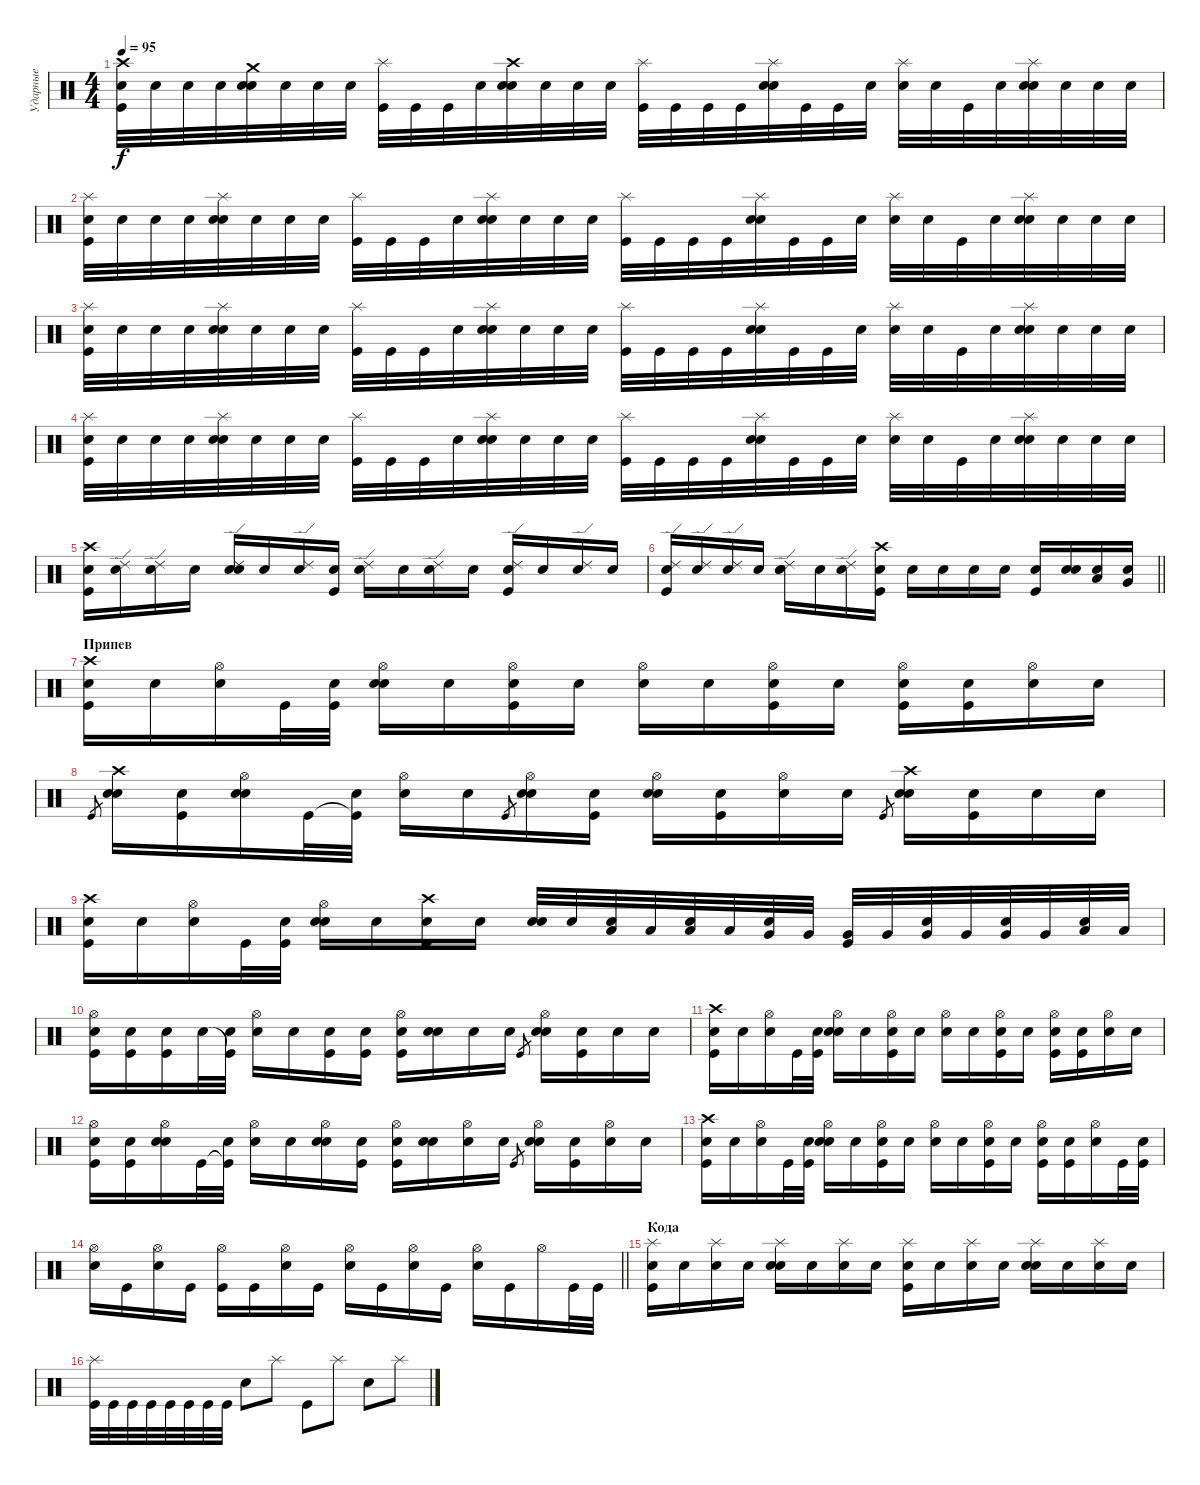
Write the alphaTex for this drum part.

\track ("Ударные" "Ударные") {instrument percussion}
\staff {score}
\articulation defaults
\ts (4 4)
\tempo 95
\clef neutral
\ks c
("Crash high (hit)" "Kick (hit)" "Snare (hit)"{x}).32{dy f} "Snare (hit)"{x}.32 "Snare (hit)"{x}.32 "Snare (hit)"{x}.32 ("Crash medium (hit)" "Electric Snare (hit)" "Snare (hit)"{x}).32 "Snare (hit)"{x}.32 "Snare (hit)"{x}.32 "Snare (hit)"{x}.32 ("Splash (hit)" "Kick (hit)").32 "Kick (hit)".32 "Kick (hit)".32 "Snare (hit)"{x}.32 ("Crash high (hit)" "Electric Snare (hit)" "Snare (hit)"{x}).32 "Snare (hit)"{x}.32 "Snare (hit)"{x}.32 "Snare (hit)"{x}.32 ("Splash (hit)" "Kick (hit)").32 "Kick (hit)".32 "Kick (hit)".32 "Kick (hit)".32 ("Splash (hit)" "Electric Snare (hit)" "Snare (hit)"{x}).32 "Kick (hit)"{x}.32 "Kick (hit)".32 "Snare (hit)"{x}.32 ("Splash (hit)" "Snare (hit)"{x}).32 "Snare (hit)"{x}.32 "Kick (hit)".32 "Snare (hit)"{x}.32 ("Splash (hit)" "Electric Snare (hit)" "Snare (hit)"{x}).32 "Snare (hit)"{x}.32 "Snare (hit)"{x}.32 "Snare (hit)"{x}.32 |
("Splash (hit)" "Kick (hit)" "Snare (hit)"{x}).32 "Snare (hit)"{x}.32 "Snare (hit)"{x}.32 "Snare (hit)"{x}.32 ("Splash (hit)" "Electric Snare (hit)" "Snare (hit)"{x}).32 "Snare (hit)"{x}.32 "Snare (hit)"{x}.32 "Snare (hit)"{x}.32 ("Splash (hit)" "Kick (hit)").32 "Kick (hit)".32 "Kick (hit)".32 "Snare (hit)"{x}.32 ("Splash (hit)" "Electric Snare (hit)" "Snare (hit)"{x}).32 "Snare (hit)"{x}.32 "Snare (hit)"{x}.32 "Snare (hit)"{x}.32 ("Splash (hit)" "Kick (hit)").32 "Kick (hit)".32 "Kick (hit)".32 "Kick (hit)".32 ("Splash (hit)" "Electric Snare (hit)" "Snare (hit)"{x}).32 "Kick (hit)"{x}.32 "Kick (hit)".32 "Snare (hit)"{x}.32 ("Splash (hit)" "Snare (hit)"{x}).32 "Snare (hit)"{x}.32 "Kick (hit)".32 "Snare (hit)"{x}.32 ("Splash (hit)" "Electric Snare (hit)" "Snare (hit)"{x}).32 "Snare (hit)"{x}.32 "Snare (hit)"{x}.32 "Snare (hit)"{x}.32 |
("Splash (hit)" "Kick (hit)" "Snare (hit)"{x}).32 "Snare (hit)"{x}.32 "Snare (hit)"{x}.32 "Snare (hit)"{x}.32 ("Splash (hit)" "Electric Snare (hit)" "Snare (hit)"{x}).32 "Snare (hit)"{x}.32 "Snare (hit)"{x}.32 "Snare (hit)"{x}.32 ("Splash (hit)" "Kick (hit)").32 "Kick (hit)".32 "Kick (hit)".32 "Snare (hit)"{x}.32 ("Splash (hit)" "Electric Snare (hit)" "Snare (hit)"{x}).32 "Snare (hit)"{x}.32 "Snare (hit)"{x}.32 "Snare (hit)"{x}.32 ("Splash (hit)" "Kick (hit)").32 "Kick (hit)".32 "Kick (hit)".32 "Kick (hit)".32 ("Splash (hit)" "Electric Snare (hit)" "Snare (hit)"{x}).32 "Kick (hit)"{x}.32 "Kick (hit)".32 "Snare (hit)"{x}.32 ("Splash (hit)" "Snare (hit)"{x}).32 "Snare (hit)"{x}.32 "Kick (hit)".32 "Snare (hit)"{x}.32 ("Splash (hit)" "Electric Snare (hit)" "Snare (hit)"{x}).32 "Snare (hit)"{x}.32 "Snare (hit)"{x}.32 "Snare (hit)"{x}.32 |
("Splash (hit)" "Kick (hit)" "Snare (hit)"{x}).32 "Snare (hit)"{x}.32 "Snare (hit)"{x}.32 "Snare (hit)"{x}.32 ("Splash (hit)" "Electric Snare (hit)" "Snare (hit)"{x}).32 "Snare (hit)"{x}.32 "Snare (hit)"{x}.32 "Snare (hit)"{x}.32 ("Splash (hit)" "Kick (hit)").32 "Kick (hit)".32 "Kick (hit)".32 "Snare (hit)"{x}.32 ("Splash (hit)" "Electric Snare (hit)" "Snare (hit)"{x}).32 "Snare (hit)"{x}.32 "Snare (hit)"{x}.32 "Snare (hit)"{x}.32 ("Splash (hit)" "Kick (hit)").32 "Kick (hit)".32 "Kick (hit)".32 "Kick (hit)".32 ("Splash (hit)" "Electric Snare (hit)" "Snare (hit)"{x}).32 "Kick (hit)"{x}.32 "Kick (hit)".32 "Snare (hit)"{x}.32 ("Splash (hit)" "Snare (hit)"{x}).32 "Snare (hit)"{x}.32 "Kick (hit)".32 "Snare (hit)"{x}.32 ("Splash (hit)" "Electric Snare (hit)" "Snare (hit)"{x}).32 "Snare (hit)"{x}.32 "Snare (hit)"{x}.32 "Snare (hit)"{x}.32 |
("Crash high (hit)" "Kick (hit)" "Snare (hit)"{x}).16 ("Ride (edge) 2" "Snare (hit)"{x}).16 ("Ride (edge) 2" "Snare (hit)"{x}).16 "Snare (hit)"{x}.16 ("Ride (edge) 2" "Electric Snare (hit)" "Snare (hit)"{x}).16 "Snare (hit)"{x}.16 ("Ride (edge) 2" "Snare (hit)"{x}).16 ("Kick (hit)" "Snare (hit)"{x}).16 ("Ride (edge) 2" "Snare (hit)"{x}).16 "Snare (hit)"{x}.16 ("Ride (edge) 2" "Snare (hit)"{x}).16 "Snare (hit)"{x}.16 ("Ride (edge) 2" "Electric Snare (hit)" "Kick (hit)"{x}).16 "Snare (hit)"{x}.16 ("Ride (edge) 2" "Snare (hit)"{x}).16 "Snare (hit)"{x}.16 |
\barLineRight lightlight
("Ride (edge) 2" "Kick (hit)" "Snare (hit)"{x}).16 ("Ride (edge) 2" "Snare (hit)"{x}).16 ("Ride (edge) 2" "Snare (hit)"{x}).16 "Snare (hit)"{x}.16 ("Ride (edge) 2" "Electric Snare (hit)" "Snare (hit)"{x}).16 "Snare (hit)"{x}.16 ("Ride (edge) 2" "Snare (hit)"{x}).16 ("Crash high (hit)" "Kick (hit)" "Snare (hit)"{x}).16 "Snare (hit)"{x}.16 "Snare (hit)"{x}.16 "Snare (hit)"{x}.16 "Snare (hit)"{x}.16 ("Electric Snare (hit)" "Kick (hit)"{x}).16 ("Electric Snare (hit)" "Snare (hit)"{x}).16 ("Low Tom (hit)" "Snare (hit)"{x}).16 ("Very Low Tom (hit)" "Snare (hit)"{x}).16 |
\section ("" "Припев")
("Crash high (hit)" "Kick (hit)" "Snare (hit)"{x}).16 "Snare (hit)"{x}.16 ("Hi-Hat (open)" "Snare (hit)"{x}).16 "Kick (hit)".32 ("Kick (hit)" "Snare (hit)"{x}).32 ("Hi-Hat (open)" "Electric Snare (hit)" "Snare (hit)"{x}).16 "Snare (hit)"{x}.16 ("Hi-Hat (open)" "Kick (hit)" "Snare (hit)"{x}).16 "Snare (hit)"{x}.16 ("Hi-Hat (open)" "Snare (hit)"{x}).16 "Snare (hit)"{x}.16 ("Hi-Hat (open)" "Kick (hit)" "Snare (hit)"{x}).16 "Snare (hit)"{x}.16 ("Hi-Hat (open)" "Electric Snare (hit)" "Kick (hit)"{x}).16 ("Kick (hit)" "Snare (hit)"{x}).16 ("Hi-Hat (open)" "Snare (hit)"{x}).16 "Snare (hit)"{x}.16 |
"Kick (hit)".8{gr} ("Crash high (hit)" "Electric Snare (hit)" "Snare (hit)"{x}).16 ("Kick (hit)" "Snare (hit)"{x}).16 ("Hi-Hat (open)" "Electric Snare (hit)" "Snare (hit)"{x}).16 "Kick (hit)".32 ("Kick (hit)"{t} "Snare (hit)"{x}).32 ("Hi-Hat (open)" "Snare (hit)"{x}).16 "Snare (hit)"{x}.16 "Kick (hit)".8{gr} ("Hi-Hat (open)" "Electric Snare (hit)" "Snare (hit)"{x}).16 ("Kick (hit)" "Snare (hit)"{x}).16 ("Hi-Hat (open)" "Electric Snare (hit)" "Snare (hit)"{x}).16 ("Kick (hit)" "Snare (hit)"{x}).16 ("Hi-Hat (open)" "Snare (hit)"{x}).16 "Snare (hit)"{x}.16 "Kick (hit)".8{gr} ("Crash high (hit)" "Electric Snare (hit)" "Snare (hit)"{x}).16 ("Kick (hit)" "Snare (hit)"{x}).16 "Snare (hit)"{x}.16 "Snare (hit)"{x}.16 |
("Crash high (hit)" "Kick (hit)" "Snare (hit)"{x}).16 "Snare (hit)"{x}.16 ("Hi-Hat (open)" "Snare (hit)"{x}).16 "Kick (hit)".32 ("Kick (hit)" "Snare (hit)"{x}).32 ("Hi-Hat (open)" "Electric Snare (hit)" "Snare (hit)"{x}).16 "Snare (hit)"{x}.16 ("Crash high (hit)" "Kick (hit)" "Snare (hit)"{x}).16 "Snare (hit)"{x}.16 ("Electric Snare (hit)" "Snare (hit)"{x}).32 "Electric Snare (hit)".32 ("Low Tom (hit)" "Snare (hit)"{x}).32 "Low Tom (hit)".32 ("Low Tom (hit)" "Snare (hit)"{x}).32 "Low Tom (hit)".32 ("Very Low Tom (hit)" "Snare (hit)"{x}).32 "Very Low Tom (hit)".32 ("Very Low Tom (hit)" "Kick (hit)"{x}).32 "Very Low Tom (hit)".32 ("Very Low Tom (hit)" "Snare (hit)"{x}).32 "Very Low Tom (hit)".32 ("Very Low Tom (hit)" "Snare (hit)"{x}).32 "Very Low Tom (hit)".32 ("Low Floor Tom (hit)" "Snare (hit)"{x}).32 "Low Floor Tom (hit)".32 |
("Hi-Hat (open)" "Kick (hit)" "Snare (hit)"{x}).16 ("Kick (hit)" "Snare (hit)"{x}).16 ("Kick (hit)" "Snare (hit)"{x}).16 "Electric Snare (hit)".32 ("Kick (hit)"{t} "Snare (hit)"{x}).32 ("Hi-Hat (open)" "Snare (hit)"{x}).16 "Snare (hit)"{x}.16 ("Kick (hit)" "Snare (hit)"{x}).16 ("Kick (hit)" "Snare (hit)"{x}).16 ("Hi-Hat (open)" "Kick (hit)" "Snare (hit)"{x}).16 ("Electric Snare (hit)" "Snare (hit)"{x}).16 "Snare (hit)"{x}.16 "Snare (hit)"{x}.16 "Kick (hit)".8{gr} ("Hi-Hat (open)" "Electric Snare (hit)" "Snare (hit)"{x}).16 ("Kick (hit)" "Snare (hit)"{x}).16 "Snare (hit)"{x}.16 "Snare (hit)"{x}.16 |
("Crash high (hit)" "Kick (hit)" "Snare (hit)"{x}).16 "Snare (hit)"{x}.16 ("Hi-Hat (open)" "Snare (hit)"{x}).16 "Kick (hit)".32 ("Kick (hit)" "Snare (hit)"{x}).32 ("Hi-Hat (open)" "Electric Snare (hit)" "Snare (hit)"{x}).16 "Snare (hit)"{x}.16 ("Hi-Hat (open)" "Kick (hit)" "Snare (hit)"{x}).16 "Snare (hit)"{x}.16 ("Hi-Hat (open)" "Snare (hit)"{x}).16 "Snare (hit)"{x}.16 ("Hi-Hat (open)" "Kick (hit)" "Snare (hit)"{x}).16 "Snare (hit)"{x}.16 ("Hi-Hat (open)" "Electric Snare (hit)" "Kick (hit)"{x}).16 ("Kick (hit)" "Snare (hit)"{x}).16 ("Hi-Hat (open)" "Snare (hit)"{x}).16 "Snare (hit)"{x}.16 |
("Hi-Hat (open)" "Kick (hit)" "Snare (hit)"{x}).16 ("Kick (hit)" "Snare (hit)"{x}).16 ("Hi-Hat (open)" "Electric Snare (hit)" "Snare (hit)"{x}).16 "Kick (hit)".32 ("Kick (hit)"{t} "Snare (hit)"{x}).32 ("Hi-Hat (open)" "Snare (hit)"{x}).16 "Snare (hit)"{x}.16 ("Hi-Hat (open)" "Electric Snare (hit)" "Snare (hit)"{x}).16 ("Kick (hit)" "Snare (hit)"{x}).16 ("Hi-Hat (open)" "Kick (hit)" "Snare (hit)"{x}).16 ("Electric Snare (hit)" "Snare (hit)"{x}).16 ("Hi-Hat (open)" "Snare (hit)"{x}).16 "Snare (hit)"{x}.16 "Kick (hit)".8{gr} ("Hi-Hat (open)" "Electric Snare (hit)" "Snare (hit)"{x}).16 ("Kick (hit)" "Snare (hit)"{x}).16 ("Hi-Hat (open)" "Snare (hit)"{x}).16 "Snare (hit)"{x}.16 |
("Crash high (hit)" "Kick (hit)" "Snare (hit)"{x}).16 "Snare (hit)"{x}.16 ("Hi-Hat (open)" "Snare (hit)"{x}).16 "Kick (hit)".32 ("Kick (hit)" "Snare (hit)"{x}).32 ("Hi-Hat (open)" "Electric Snare (hit)" "Snare (hit)"{x}).16 "Snare (hit)"{x}.16 ("Hi-Hat (open)" "Kick (hit)" "Snare (hit)"{x}).16 "Snare (hit)"{x}.16 ("Hi-Hat (open)" "Snare (hit)"{x}).16 "Snare (hit)"{x}.16 ("Hi-Hat (open)" "Kick (hit)" "Snare (hit)"{x}).16 "Snare (hit)"{x}.16 ("Hi-Hat (open)" "Electric Snare (hit)" "Kick (hit)"{x}).16 ("Kick (hit)" "Snare (hit)"{x}).16 ("Hi-Hat (open)" "Snare (hit)"{x}).16 "Kick (hit)".32 ("Kick (hit)" "Snare (hit)"{x}).32 |
\barLineRight lightlight
("Hi-Hat (open)" "Electric Snare (hit)").16 "Kick (hit)".16 ("Hi-Hat (open)" "Electric Snare (hit)").16 "Kick (hit)".16 ("Hi-Hat (open)" "Kick (hit)").16 "Kick (hit)".16 ("Hi-Hat (open)" "Electric Snare (hit)").16 "Kick (hit)".16 ("Hi-Hat (open)" "Electric Snare (hit)").16 "Kick (hit)".16 ("Hi-Hat (open)" "Electric Snare (hit)").16 "Kick (hit)".16 ("Hi-Hat (open)" "Electric Snare (hit)").16 "Kick (hit)".16 "Hi-Hat (open)".16 "Kick (hit)".32 "Kick (hit)".32 |
\section ("" "Кода")
("Splash (hit)" "Kick (hit)" "Snare (hit)"{x}).16 "Snare (hit)"{x}.16 ("Splash (hit)" "Snare (hit)"{x}).16 "Snare (hit)"{x}.16 ("Splash (hit)" "Electric Snare (hit)" "Snare (hit)"{x}).16 "Snare (hit)"{x}.16 ("Splash (hit)" "Snare (hit)"{x}).16 "Snare (hit)"{x}.16 ("Splash (hit)" "Kick (hit)" "Snare (hit)"{x}).16 "Snare (hit)"{x}.16 ("Splash (hit)" "Snare (hit)"{x}).16 "Snare (hit)"{x}.16 ("Splash (hit)" "Electric Snare (hit)" "Snare (hit)"{x}).16 "Snare (hit)"{x}.16 ("Splash (hit)" "Snare (hit)"{x}).16 "Snare (hit)"{x}.16 |
("Splash (hit)" "Kick (hit)").32 "Kick (hit)".32 "Kick (hit)".32 "Kick (hit)".32 "Kick (hit)".32 "Kick (hit)".32 "Kick (hit)".32 "Kick (hit)".32 "Electric Snare (hit)".8 "Splash (hit)".8 "Kick (hit)".8 "Splash (hit)".8 "Electric Snare (hit)".8 "Splash (hit)".8
